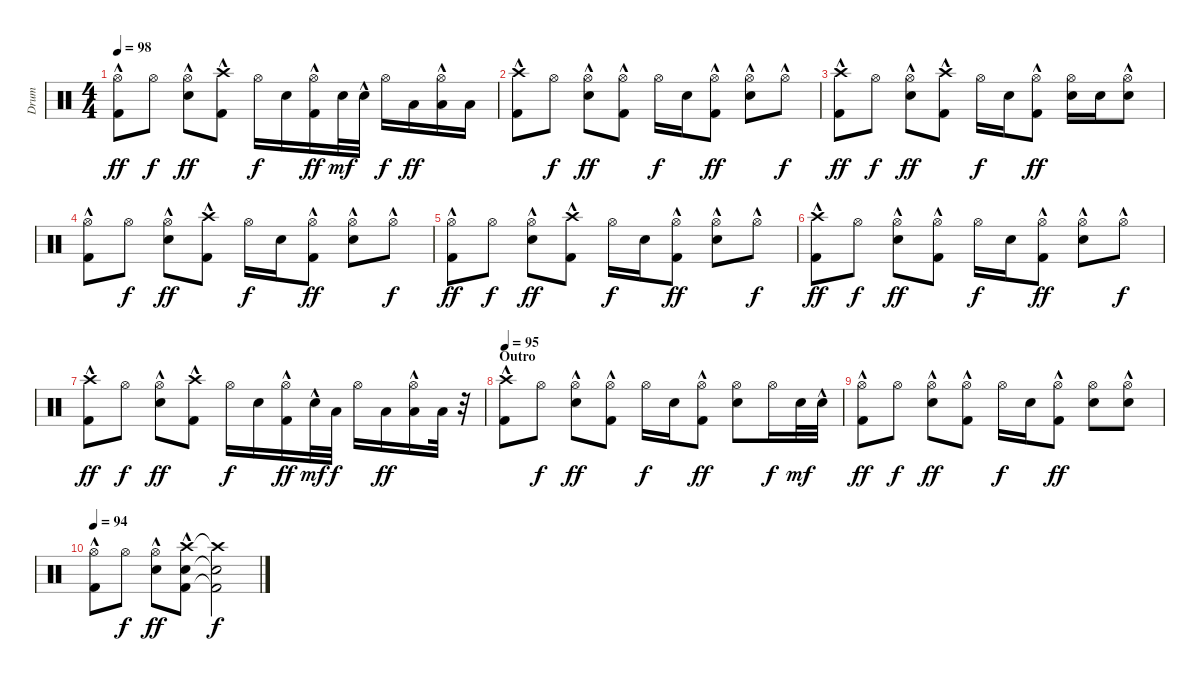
\track ("Drum" "Drum") {instrument percussion}
\staff {score}
\articulation defaults
\ts (4 4)
\tempo 98
\clef neutral
\ks c
("Kick (hit) 2"{hac} "Hi-Hat (open)").8{dy ff} "Hi-Hat (open)".8{dy f} ("Hi-Hat (open)"{hac} "Electric Snare (hit)"{hac}).8{dy ff} ("Crash high (hit)"{hac} "Kick (hit) 2"{hac}).8 "Hi-Hat (open)".16{dy f} "Electric Snare (hit)".16 ("Hi-Hat (open)" "Kick (hit) 2"{hac}).16{dy ff} "Electric Snare (hit)".32{dy mf} "Electric Snare (hit)"{hac}.32 "Hi-Hat (open)".16{dy f} "Low Tom (hit)".16{dy ff} ("Low Tom (hit)" "Hi-Hat (open)"{hac}).16 "Low Tom (hit)".16 |
("Crash high (hit)"{hac} "Kick (hit) 2"{hac}).8 "Hi-Hat (open)".8{dy f} ("Electric Snare (hit)"{hac} "Hi-Hat (open)").8{dy ff} ("Hi-Hat (open)" "Kick (hit) 2"{hac}).8 "Hi-Hat (open)".16{dy f} "Electric Snare (hit)".16 ("Hi-Hat (open)" "Kick (hit) 2"{hac}).8{dy ff} ("Hi-Hat (open)" "Electric Snare (hit)"{hac}).8 "Hi-Hat (open)"{hac}.8{dy f} |
("Kick (hit) 2"{hac} "Crash high (hit)"{hac}).8{dy ff} "Hi-Hat (open)".8{dy f} ("Hi-Hat (open)"{hac} "Electric Snare (hit)"{hac}).8{dy ff} ("Crash high (hit)"{hac} "Kick (hit) 2"{hac}).8 "Hi-Hat (open)".16{dy f} "Electric Snare (hit)".16 ("Hi-Hat (open)" "Kick (hit) 2"{hac}).8{dy ff} ("Electric Snare (hit)" "Hi-Hat (open)").16 "Electric Snare (hit)".16 ("Electric Snare (hit)"{hac} "Hi-Hat (open)"{hac}).8 |
("Hi-Hat (open)" "Kick (hit) 2"{hac}).8 "Hi-Hat (open)".8{dy f} ("Electric Snare (hit)"{hac} "Hi-Hat (open)"{hac}).8{dy ff} ("Kick (hit) 2"{hac} "Crash high (hit)"{hac}).8 "Hi-Hat (open)".16{dy f} "Electric Snare (hit)".16 ("Kick (hit) 2"{hac} "Hi-Hat (open)").8{dy ff} ("Hi-Hat (open)" "Electric Snare (hit)"{hac}).8 "Hi-Hat (open)"{hac}.8{dy f} |
("Hi-Hat (open)" "Kick (hit) 2"{hac}).8{dy ff} "Hi-Hat (open)".8{dy f} ("Electric Snare (hit)"{hac} "Hi-Hat (open)"{hac}).8{dy ff} ("Kick (hit) 2"{hac} "Crash high (hit)"{hac}).8 "Hi-Hat (open)".16{dy f} "Electric Snare (hit)".16 ("Kick (hit) 2"{hac} "Hi-Hat (open)").8{dy ff} ("Hi-Hat (open)" "Electric Snare (hit)"{hac}).8 "Hi-Hat (open)"{hac}.8{dy f} |
("Kick (hit) 2"{hac} "Crash high (hit)"{hac}).8{dy ff} "Hi-Hat (open)".8{dy f} ("Hi-Hat (open)" "Electric Snare (hit)"{hac}).8{dy ff} ("Kick (hit) 2"{hac} "Hi-Hat (open)").8 "Hi-Hat (open)".16{dy f} "Electric Snare (hit)".16 ("Kick (hit) 2"{hac} "Hi-Hat (open)").8{dy ff} ("Electric Snare (hit)"{hac} "Hi-Hat (open)").8 "Hi-Hat (open)"{hac}.8{dy f} |
("Crash high (hit)"{hac} "Kick (hit) 2"{hac}).8{dy ff} "Hi-Hat (open)".8{dy f} ("Electric Snare (hit)"{hac} "Hi-Hat (open)"{hac}).8{dy ff} ("Kick (hit) 2"{hac} "Crash high (hit)"{hac}).8 "Hi-Hat (open)".16{dy f} "Electric Snare (hit)".16 ("Kick (hit) 2"{hac} "Hi-Hat (open)").16{dy ff} "Electric Snare (hit)"{hac}.32{dy mf} "Low Tom (hit)".32{dy f} "Hi-Hat (open)".16 "Low Tom (hit)".16{dy ff} ("Low Tom (hit)" "Hi-Hat (open)"{hac}).16 "Low Tom (hit)".32 r.32 |
\section ("" "Outro")
\tempo 95
("Kick (hit) 2"{hac} "Crash high (hit)"{hac}).8 "Hi-Hat (open)".8{dy f} ("Hi-Hat (open)" "Electric Snare (hit)"{hac}).8{dy ff} ("Kick (hit) 2"{hac} "Hi-Hat (open)").8 "Hi-Hat (open)".16{dy f} "Electric Snare (hit)".16 ("Kick (hit) 2"{hac} "Hi-Hat (open)").8{dy ff} ("Electric Snare (hit)" "Hi-Hat (open)").8 "Hi-Hat (open)".16{dy f} "Electric Snare (hit)".32{dy mf} "Electric Snare (hit)"{hac}.32 |
("Hi-Hat (open)" "Kick (hit) 2"{hac}).8{dy ff} "Hi-Hat (open)".8{dy f} ("Electric Snare (hit)"{hac} "Hi-Hat (open)").8{dy ff} ("Kick (hit) 2"{hac} "Hi-Hat (open)").8 "Hi-Hat (open)".16{dy f} "Electric Snare (hit)".16 ("Kick (hit) 2"{hac} "Hi-Hat (open)").8{dy ff} ("Hi-Hat (open)" "Electric Snare (hit)").8 ("Electric Snare (hit)"{hac} "Hi-Hat (open)"{hac}).8 |
\tempo 94
("Kick (hit) 2"{hac} "Hi-Hat (open)"{hac}).8 "Hi-Hat (open)".8{dy f} ("Hi-Hat (open)" "Electric Snare (hit)"{hac}).8{dy ff} ("Kick (hit) 2"{hac} "Electric Snare (hit)" "Crash high (hit)").8 ("Kick (hit) 2"{t} "Electric Snare (hit)"{t} "Crash high (hit)"{t}).2{dy f}
